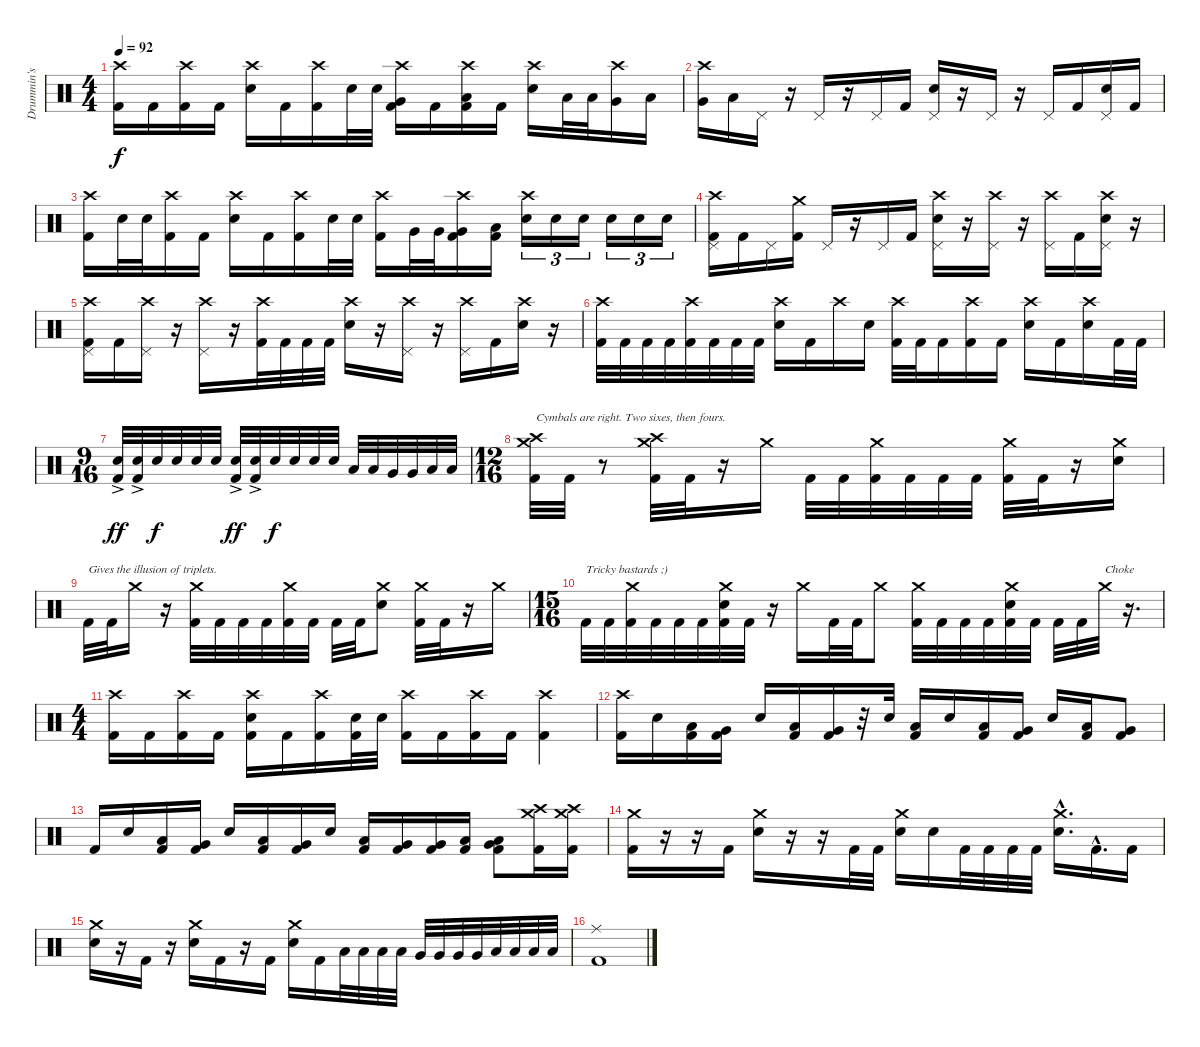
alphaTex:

\track ("Drummin's" "Drummin's") {instrument percussion}
\staff {score}
\articulation defaults
\ts (4 4)
\tempo 92
\clef neutral
\ks c
("Crash high (hit)" "Kick (hit) 2").16{dy f} "Kick (hit) 2".16 ("Crash high (hit)" "Kick (hit) 2").16 "Kick (hit) 2".16 ("Crash high (hit)" "Snare (hit) 2").16 "Kick (hit) 2".16 ("Crash high (hit)" "Kick (hit) 2").16 "Snare (hit) 2".32 "Snare (hit) 2".32 ("Crash high (hit)" "Very Low Tom (hit)" "Kick (hit) 2").16 "Kick (hit) 2".16 ("Crash high (hit)" "Low Floor Tom (hit)" "Kick (hit) 2").16 "Kick (hit) 2".16 ("Crash high (hit)" "Snare (hit) 2").16 "Low Tom (hit)".32 "Low Tom (hit)".32 ("Crash high (hit)" "Very Low Tom (hit)").16 "Low Floor Tom (hit)".16 |
("Crash high (hit)" "Very Low Tom (hit)").16 "Low Floor Tom (hit)".16 "Pedal Hi-Hat (hit)".16 r.16 "Pedal Hi-Hat (hit)".16 r.16 "Pedal Hi-Hat (hit)".16 "Kick (hit) 2".16 ("Pedal Hi-Hat (hit)" "Snare (hit) 2").16 r.16 "Pedal Hi-Hat (hit)".16 r.16 "Pedal Hi-Hat (hit)".16 "Kick (hit) 2".16 ("Pedal Hi-Hat (hit)" "Snare (hit) 2").16 "Kick (hit) 2".16 |
("Crash high (hit)" "Kick (hit) 2").16 "Snare (hit) 2".32 "Snare (hit) 2".32 ("Crash high (hit)" "Kick (hit) 2").16 "Kick (hit) 2".16 ("Crash high (hit)" "Snare (hit) 2").16 "Kick (hit) 2".16 ("Crash high (hit)" "Kick (hit) 2").16 "Snare (hit) 2".32 "Snare (hit) 2".32 ("Crash high (hit)" "Kick (hit) 2").16 "Very Low Tom (hit)".32 "Very Low Tom (hit)".32 ("Crash high (hit)" "Very Low Tom (hit)" "Kick (hit) 2").16 ("Low Floor Tom (hit)" "Kick (hit) 2").16 ("Crash high (hit)" "Snare (hit) 2").16{tu (3 2)} "Snare (hit) 2".16{tu (3 2)} "Snare (hit) 2".16{tu (3 2)} "Snare (hit) 2".16{tu (3 2)} "Snare (hit) 2".16{tu (3 2)} "Snare (hit) 2".16{tu (3 2)} |
("Crash high (hit)" "Pedal Hi-Hat (hit)" "Kick (hit) 2").16 "Kick (hit) 2".16 "Pedal Hi-Hat (hit)".16 ("Crash medium (hit)" "Kick (hit) 2").16 "Pedal Hi-Hat (hit)".16 r.16 "Pedal Hi-Hat (hit)".16 "Kick (hit) 2".16 ("Crash high (hit)" "Pedal Hi-Hat (hit)" "Snare (hit) 2").16 r.16 ("Crash high (hit)" "Pedal Hi-Hat (hit)").16 r.16 ("Crash high (hit)" "Pedal Hi-Hat (hit)").16 "Kick (hit) 2".16 ("Crash high (hit)" "Pedal Hi-Hat (hit)" "Snare (hit) 2").16 r.16 |
("Crash high (hit)" "Pedal Hi-Hat (hit)" "Kick (hit) 2").16 "Kick (hit) 2".16 ("Crash high (hit)" "Pedal Hi-Hat (hit)").16 r.16 ("Crash high (hit)" "Pedal Hi-Hat (hit)").16 r.16 ("Crash high (hit)" "Kick (hit) 2").32 "Kick (hit) 2".32 "Kick (hit) 2".32 "Kick (hit) 2".32 ("Crash high (hit)" "Snare (hit) 2").16 r.16 ("Crash high (hit)" "Pedal Hi-Hat (hit)").16 r.16 ("Crash high (hit)" "Pedal Hi-Hat (hit)").16 "Kick (hit) 2".16 ("Crash high (hit)" "Snare (hit) 2").16 r.16 |
("Crash high (hit)" "Kick (hit) 2").32 "Kick (hit) 2".32 "Kick (hit) 2".32 "Kick (hit) 2".32 ("Crash high (hit)" "Kick (hit) 2").32 "Kick (hit) 2".32 "Kick (hit) 2".32 "Kick (hit) 2".32 ("Crash high (hit)" "Snare (hit) 2").16 "Kick (hit) 2".16 "Crash high (hit)".16 "Snare (hit) 2".16 ("Crash high (hit)" "Kick (hit) 2").32 "Kick (hit) 2".32 "Kick (hit) 2".16 ("Crash high (hit)" "Kick (hit) 2").16 "Kick (hit) 2".16 ("Crash high (hit)" "Snare (hit) 2").16 "Kick (hit) 2".16 ("Crash high (hit)" "Snare (hit) 2").16 "Kick (hit) 2".32 "Kick (hit) 2".32 |
\ts (9 16)
("Snare (hit) 2"{ac} "Kick (hit) 2").32{dy ff} ("Snare (hit) 2"{ac} "Kick (hit) 2").32 "Snare (hit) 2".32{dy f} "Snare (hit) 2".32 "Snare (hit) 2".32 "Snare (hit) 2".32 ("Snare (hit) 2"{ac} "Kick (hit) 2").32{dy ff} ("Snare (hit) 2"{ac} "Kick (hit) 2").32 "Snare (hit) 2".32{dy f} "Snare (hit) 2".32 "Snare (hit) 2".32 "Snare (hit) 2".32 "Low Tom (hit)".32 "Low Tom (hit)".32 "Very Low Tom (hit)".32 "Very Low Tom (hit)".32 "Low Floor Tom (hit)".32 "Low Floor Tom (hit)".32 |
\ts (12 16)
("Crash medium (hit)" "Crash high (hit)" "Kick (hit) 2").32{txt "Cymbals are right. Two sixes, then fours."} "Kick (hit) 2".32 r.8 ("Crash medium (hit)" "Crash high (hit)" "Kick (hit) 2").32 "Kick (hit) 2".32 r.16 "Crash medium (hit)".16 "Kick (hit) 2".32 "Kick (hit) 2".32 ("Crash medium (hit)" "Kick (hit) 2").32 "Kick (hit) 2".32 "Kick (hit) 2".32 "Kick (hit) 2".32 ("Crash medium (hit)" "Kick (hit) 2").32 "Kick (hit) 2".32 r.16 ("Crash medium (hit)" "Snare (hit) 2").16 |
"Kick (hit) 2".32{txt "Gives the illusion of triplets."} "Kick (hit) 2".32 "Crash medium (hit)".16 r.16 ("Crash medium (hit)" "Kick (hit) 2").32 "Kick (hit) 2".32 "Kick (hit) 2".32 "Kick (hit) 2".32 ("Crash medium (hit)" "Kick (hit) 2").32 "Kick (hit) 2".32 "Kick (hit) 2".32 "Kick (hit) 2".32 ("Crash medium (hit)" "Snare (hit) 2").8 ("Crash medium (hit)" "Kick (hit) 2").32 "Kick (hit) 2".32 r.16 "Crash medium (hit)".16 |
\ts (15 16)
"Kick (hit) 2".32{txt "Tricky bastards ;)"} "Kick (hit) 2".32 ("Crash medium (hit)" "Kick (hit) 2").32 "Kick (hit) 2".32 "Kick (hit) 2".32 "Kick (hit) 2".32 ("Crash medium (hit)" "Snare (hit) 2" "Kick (hit) 2").32 "Kick (hit) 2".32 r.16 "Crash medium (hit)".16 "Kick (hit) 2".32 "Kick (hit) 2".32 "Crash medium (hit)".8 ("Crash medium (hit)" "Kick (hit) 2").32 "Kick (hit) 2".32 "Kick (hit) 2".32 "Kick (hit) 2".32 ("Crash medium (hit)" "Snare (hit) 2" "Kick (hit) 2").32 "Kick (hit) 2".32 "Kick (hit) 2".32 "Kick (hit) 2".32 "Crash medium (hit)".32{txt "Choke"} r.16{d volume 0} |
\ts (4 4)
("Crash high (hit)" "Kick (hit) 2").16{volume 13} "Kick (hit) 2".16 ("Crash high (hit)" "Kick (hit) 2").16 "Kick (hit) 2".16 ("Crash high (hit)" "Snare (hit) 2" "Kick (hit) 2").16 "Kick (hit) 2".16 ("Crash high (hit)" "Kick (hit) 2").16 ("Snare (hit) 2" "Kick (hit) 2").32 "Snare (hit) 2".32 ("Crash high (hit)" "Kick (hit) 2").16 "Kick (hit) 2".16 ("Crash high (hit)" "Kick (hit) 2").16 "Kick (hit) 2".16 ("Crash high (hit)" "Kick (hit) 2").4 |
("Crash high (hit)" "Kick (hit) 2").16 "Snare (hit) 2".16 ("Low Tom (hit)" "Kick (hit) 2").16 ("Very Low Tom (hit)" "Kick (hit) 2").16 "Snare (hit) 2".16 ("Low Tom (hit)" "Kick (hit) 2").16 ("Very Low Tom (hit)" "Kick (hit) 2").16 r.32 "Snare (hit) 2".32 ("Low Tom (hit)" "Kick (hit) 2").16 "Snare (hit) 2".16 ("Low Tom (hit)" "Kick (hit) 2").16 ("Very Low Tom (hit)" "Kick (hit) 2").16 "Snare (hit) 2".16 ("Low Tom (hit)" "Kick (hit) 2").16 ("Very Low Tom (hit)" "Kick (hit) 2").8 |
"Kick (hit) 2".16 "Snare (hit) 2".16 ("Low Tom (hit)" "Kick (hit) 2").16 ("Very Low Tom (hit)" "Kick (hit) 2").16 "Snare (hit) 2".16 ("Low Tom (hit)" "Kick (hit) 2").16 ("Very Low Tom (hit)" "Kick (hit) 2").16 "Snare (hit) 2".16 ("Low Tom (hit)" "Kick (hit) 2").16 ("Very Low Tom (hit)" "Kick (hit) 2").16 ("Very Low Tom (hit)" "Kick (hit) 2").16 ("Low Floor Tom (hit)" "Kick (hit) 2").16 ("Very Low Tom (hit)" "Low Floor Tom (hit)" "Kick (hit) 2").8 ("Crash medium (hit)" "Crash high (hit)" "Kick (hit) 2").16 ("Crash medium (hit)" "Crash high (hit)" "Kick (hit) 2").16 |
("Crash medium (hit)" "Kick (hit) 2").16 r.16 r.16 "Kick (hit) 2".16 ("Crash medium (hit)" "Snare (hit) 2").16 r.16 r.16 "Kick (hit) 2".32 "Kick (hit) 2".32 ("Crash medium (hit)" "Snare (hit) 2").16 "Snare (hit) 2".16 "Kick (hit) 2".32 "Kick (hit) 2".32 "Kick (hit) 2".32 "Kick (hit) 2".32 ("Crash medium (hit)"{hac} "Snare (hit) 2"{hac}).16{d} "Kick (hit) 2"{hac}.16{d} "Kick (hit) 2".16 |
("Crash medium (hit)" "Snare (hit) 2").16 r.16 "Kick (hit) 2".16 r.16 ("Crash medium (hit)" "Snare (hit) 2").16 "Kick (hit) 2".16 r.16 "Kick (hit) 2".16 ("Crash medium (hit)" "Snare (hit) 2").16 "Kick (hit) 2".16 "Low Tom (hit)".32 "Low Tom (hit)".32 "Low Tom (hit)".32 "Low Tom (hit)".32 "Very Low Tom (hit)".32 "Very Low Tom (hit)".32 "Very Low Tom (hit)".32 "Very Low Tom (hit)".32 "Low Floor Tom (hit)".32 "Low Floor Tom (hit)".32 "Low Floor Tom (hit)".32 "Low Floor Tom (hit)".32 |
("Ride (middle)" "Kick (hit) 2").1
